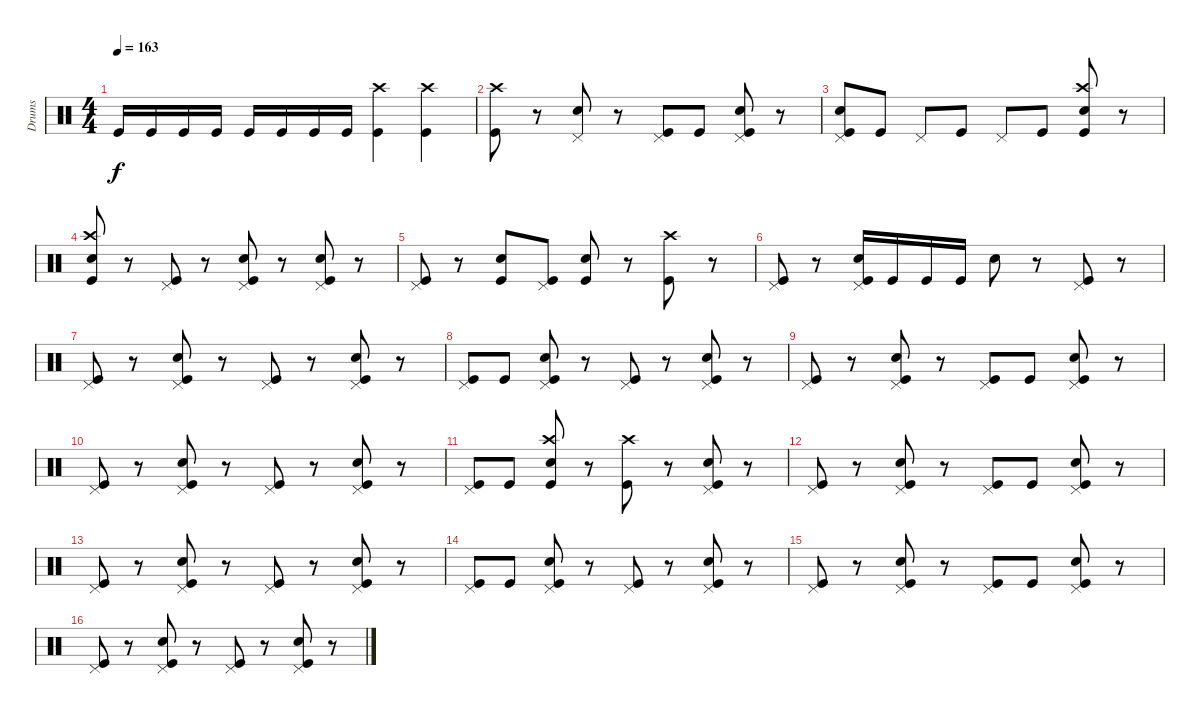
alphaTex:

\track ("Drums" "Drums") {instrument percussion}
\staff {score}
\articulation defaults
\ts (4 4)
\tempo 163
\clef neutral
\ks c "Kick (hit)".16{dy f} "Kick (hit)".16 "Kick (hit)".16 "Kick (hit)".16 "Kick (hit)".16 "Kick (hit)".16 "Kick (hit)".16 "Kick (hit)".16
("Crash high (hit)" "Kick (hit)").4 ("Crash high (hit)" "Kick (hit)").4 |
("Crash high (hit)" "Kick (hit)").8 r.8 ("Pedal Hi-Hat (hit)" "Snare (hit) 2").8 r.8 ("Pedal Hi-Hat (hit)" "Kick (hit)").8 "Kick (hit)".8 ("Pedal Hi-Hat (hit)" "Snare (hit) 2" "Kick (hit)").8 r.8 |
("Pedal Hi-Hat (hit)" "Snare (hit) 2" "Kick (hit)").8 "Kick (hit)".8 "Pedal Hi-Hat (hit)".8 "Kick (hit)".8 "Pedal Hi-Hat (hit)".8 "Kick (hit)".8 ("Crash high (hit)" "Snare (hit) 2" "Kick (hit)").8 r.8 |
("Crash high (hit)" "Snare (hit) 2" "Kick (hit)").8 r.8 ("Pedal Hi-Hat (hit)" "Kick (hit)").8 r.8 ("Pedal Hi-Hat (hit)" "Snare (hit) 2" "Kick (hit)").8 r.8 ("Pedal Hi-Hat (hit)" "Snare (hit) 2" "Kick (hit)").8 r.8 |
("Pedal Hi-Hat (hit)" "Kick (hit)").8 r.8 ("Snare (hit) 2" "Kick (hit)").8 ("Pedal Hi-Hat (hit)" "Kick (hit)").8 ("Snare (hit) 2" "Kick (hit)").8 r.8 ("Crash high (hit)" "Kick (hit)").8 r.8 |
("Pedal Hi-Hat (hit)" "Kick (hit)").8 r.8 ("Pedal Hi-Hat (hit)" "Snare (hit) 2" "Kick (hit)").16 "Kick (hit)".16 "Kick (hit)".16 "Kick (hit)".16 "Snare (hit) 2".8 r.8 ("Pedal Hi-Hat (hit)" "Kick (hit)").8 r.8 |
("Pedal Hi-Hat (hit)" "Kick (hit)").8 r.8 ("Pedal Hi-Hat (hit)" "Snare (hit) 2" "Kick (hit)").8 r.8 ("Pedal Hi-Hat (hit)" "Kick (hit)").8 r.8 ("Pedal Hi-Hat (hit)" "Snare (hit) 2" "Kick (hit)").8 r.8 |
("Pedal Hi-Hat (hit)" "Kick (hit)").8 "Kick (hit)".8 ("Pedal Hi-Hat (hit)" "Snare (hit) 2" "Kick (hit)").8 r.8 ("Pedal Hi-Hat (hit)" "Kick (hit)").8 r.8 ("Pedal Hi-Hat (hit)" "Snare (hit) 2" "Kick (hit)").8 r.8 |
("Pedal Hi-Hat (hit)" "Kick (hit)").8 r.8 ("Pedal Hi-Hat (hit)" "Snare (hit) 2" "Kick (hit)").8 r.8 ("Pedal Hi-Hat (hit)" "Kick (hit)").8 "Kick (hit)".8 ("Pedal Hi-Hat (hit)" "Snare (hit) 2" "Kick (hit)").8 r.8 |
("Pedal Hi-Hat (hit)" "Kick (hit)").8 r.8 ("Pedal Hi-Hat (hit)" "Snare (hit) 2" "Kick (hit)").8 r.8 ("Pedal Hi-Hat (hit)" "Kick (hit)").8 r.8 ("Pedal Hi-Hat (hit)" "Snare (hit) 2" "Kick (hit)").8 r.8 |
("Pedal Hi-Hat (hit)" "Kick (hit)").8 "Kick (hit)".8 ("Crash high (hit)" "Snare (hit) 2" "Kick (hit)").8 r.8 ("Crash high (hit)" "Kick (hit)").8 r.8 ("Pedal Hi-Hat (hit)" "Snare (hit) 2" "Kick (hit)").8 r.8 |
("Pedal Hi-Hat (hit)" "Kick (hit)").8 r.8 ("Pedal Hi-Hat (hit)" "Snare (hit) 2" "Kick (hit)").8 r.8 ("Pedal Hi-Hat (hit)" "Kick (hit)").8 "Kick (hit)".8 ("Pedal Hi-Hat (hit)" "Snare (hit) 2" "Kick (hit)").8 r.8 |
("Pedal Hi-Hat (hit)" "Kick (hit)").8 r.8 ("Pedal Hi-Hat (hit)" "Snare (hit) 2" "Kick (hit)").8 r.8 ("Pedal Hi-Hat (hit)" "Kick (hit)").8 r.8 ("Pedal Hi-Hat (hit)" "Snare (hit) 2" "Kick (hit)").8 r.8 |
("Pedal Hi-Hat (hit)" "Kick (hit)").8 "Kick (hit)".8 ("Pedal Hi-Hat (hit)" "Snare (hit) 2" "Kick (hit)").8 r.8 ("Pedal Hi-Hat (hit)" "Kick (hit)").8 r.8 ("Pedal Hi-Hat (hit)" "Snare (hit) 2" "Kick (hit)").8 r.8 |
("Pedal Hi-Hat (hit)" "Kick (hit)").8 r.8 ("Pedal Hi-Hat (hit)" "Snare (hit) 2" "Kick (hit)").8 r.8 ("Pedal Hi-Hat (hit)" "Kick (hit)").8 "Kick (hit)".8 ("Pedal Hi-Hat (hit)" "Snare (hit) 2" "Kick (hit)").8 r.8 |
("Pedal Hi-Hat (hit)" "Kick (hit)").8 r.8 ("Pedal Hi-Hat (hit)" "Snare (hit) 2" "Kick (hit)").8 r.8 ("Pedal Hi-Hat (hit)" "Kick (hit)").8 r.8 ("Pedal Hi-Hat (hit)" "Snare (hit) 2" "Kick (hit)").8 r.8
